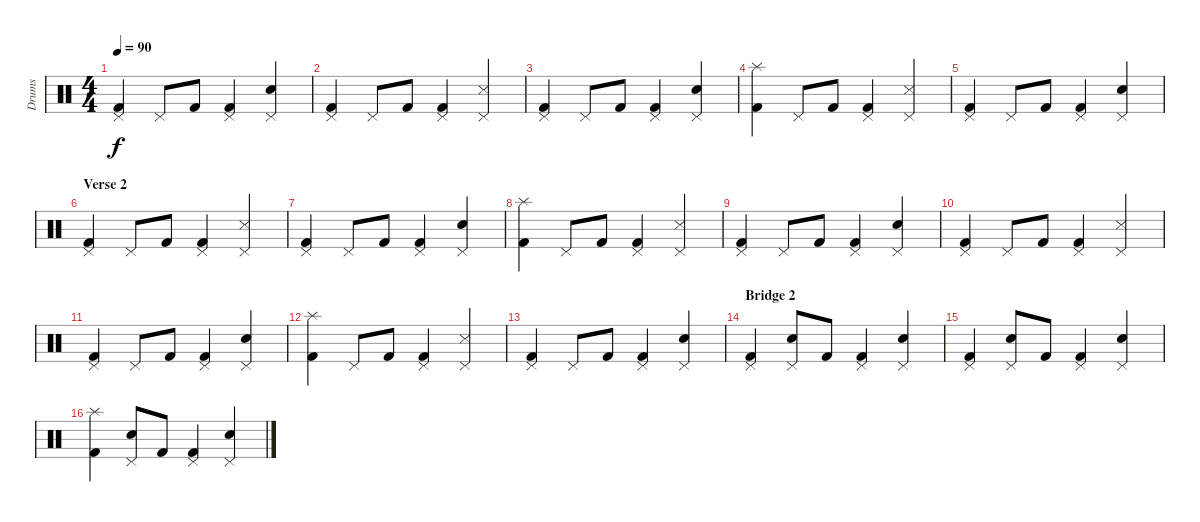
\track ("Drums" "Drums") {instrument percussion}
\staff {score}
\articulation defaults
\ts (4 4)
\tempo 90
\clef neutral
\ks c
("Pedal Hi-Hat (hit)" "Kick (hit) 2").4{dy f} "Pedal Hi-Hat (hit)".8 "Kick (hit) 2".8 ("Pedal Hi-Hat (hit)" "Kick (hit) 2").4 ("Pedal Hi-Hat (hit)" "Snare (hit) 2").4 |
("Pedal Hi-Hat (hit)" "Kick (hit) 2").4 "Pedal Hi-Hat (hit)".8 "Kick (hit) 2".8 ("Pedal Hi-Hat (hit)" "Kick (hit) 2").4 ("Pedal Hi-Hat (hit)" "Snare (side stick) 3").4 |
("Pedal Hi-Hat (hit)" "Kick (hit) 2").4 "Pedal Hi-Hat (hit)".8 "Kick (hit) 2".8 ("Pedal Hi-Hat (hit)" "Kick (hit) 2").4 ("Pedal Hi-Hat (hit)" "Snare (hit) 2").4 |
("Splash (hit)" "Kick (hit) 2").4 "Pedal Hi-Hat (hit)".8 "Kick (hit) 2".8 ("Pedal Hi-Hat (hit)" "Kick (hit) 2").4 ("Pedal Hi-Hat (hit)" "Snare (side stick) 3").4 |
("Pedal Hi-Hat (hit)" "Kick (hit) 2").4 "Pedal Hi-Hat (hit)".8 "Kick (hit) 2".8 ("Pedal Hi-Hat (hit)" "Kick (hit) 2").4 ("Pedal Hi-Hat (hit)" "Snare (hit) 2").4 |
\section ("" "Verse 2")
("Pedal Hi-Hat (hit)" "Kick (hit) 2").4 "Pedal Hi-Hat (hit)".8 "Kick (hit) 2".8 ("Pedal Hi-Hat (hit)" "Kick (hit) 2").4 ("Pedal Hi-Hat (hit)" "Snare (side stick) 3").4 |
("Pedal Hi-Hat (hit)" "Kick (hit) 2").4 "Pedal Hi-Hat (hit)".8 "Kick (hit) 2".8 ("Pedal Hi-Hat (hit)" "Kick (hit) 2").4 ("Pedal Hi-Hat (hit)" "Snare (hit) 2").4 |
("Splash (hit)" "Kick (hit) 2").4 "Pedal Hi-Hat (hit)".8 "Kick (hit) 2".8 ("Pedal Hi-Hat (hit)" "Kick (hit) 2").4 ("Pedal Hi-Hat (hit)" "Snare (side stick) 3").4 |
("Pedal Hi-Hat (hit)" "Kick (hit) 2").4 "Pedal Hi-Hat (hit)".8 "Kick (hit) 2".8 ("Pedal Hi-Hat (hit)" "Kick (hit) 2").4 ("Pedal Hi-Hat (hit)" "Snare (hit) 2").4 |
("Pedal Hi-Hat (hit)" "Kick (hit) 2").4 "Pedal Hi-Hat (hit)".8 "Kick (hit) 2".8 ("Pedal Hi-Hat (hit)" "Kick (hit) 2").4 ("Pedal Hi-Hat (hit)" "Snare (side stick) 3").4 |
("Pedal Hi-Hat (hit)" "Kick (hit) 2").4 "Pedal Hi-Hat (hit)".8 "Kick (hit) 2".8 ("Pedal Hi-Hat (hit)" "Kick (hit) 2").4 ("Pedal Hi-Hat (hit)" "Snare (hit) 2").4 |
("Splash (hit)" "Kick (hit) 2").4 "Pedal Hi-Hat (hit)".8 "Kick (hit) 2".8 ("Pedal Hi-Hat (hit)" "Kick (hit) 2").4 ("Pedal Hi-Hat (hit)" "Snare (side stick) 3").4 |
("Pedal Hi-Hat (hit)" "Kick (hit) 2").4 "Pedal Hi-Hat (hit)".8 "Kick (hit) 2".8 ("Pedal Hi-Hat (hit)" "Kick (hit) 2").4 ("Pedal Hi-Hat (hit)" "Snare (hit) 2").4 |
\section ("" "Bridge 2")
("Pedal Hi-Hat (hit)" "Kick (hit) 2").4 ("Pedal Hi-Hat (hit)" "Snare (hit) 2").8 "Kick (hit) 2".8 ("Pedal Hi-Hat (hit)" "Kick (hit) 2").4 ("Pedal Hi-Hat (hit)" "Snare (hit) 2").4 |
("Pedal Hi-Hat (hit)" "Kick (hit) 2").4 ("Pedal Hi-Hat (hit)" "Snare (hit) 2").8 "Kick (hit) 2".8 ("Pedal Hi-Hat (hit)" "Kick (hit) 2").4 ("Pedal Hi-Hat (hit)" "Snare (hit) 2").4 |
("Splash (hit)" "Kick (hit) 2").4 ("Pedal Hi-Hat (hit)" "Snare (hit) 2").8 "Kick (hit) 2".8 ("Pedal Hi-Hat (hit)" "Kick (hit) 2").4 ("Pedal Hi-Hat (hit)" "Snare (hit) 2").4
